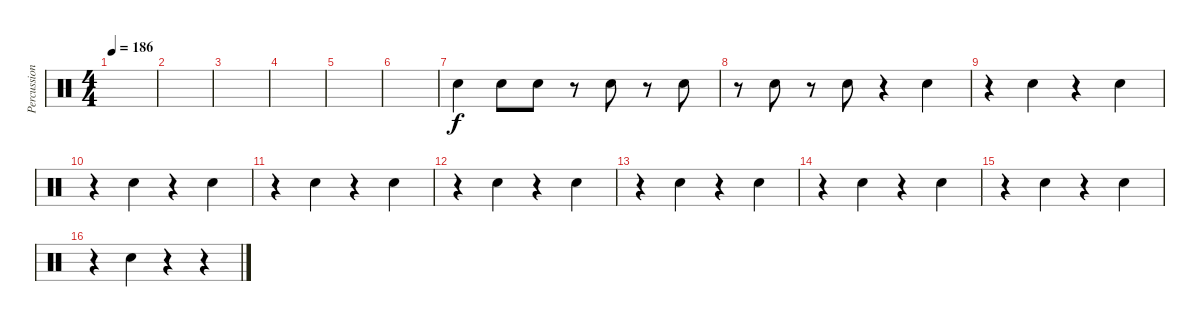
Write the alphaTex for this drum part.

\track ("Percussion" "Percussion") {instrument percussion}
\staff {score}
\articulation defaults
\ts (4 4)
\tempo 186
\clef neutral
\ks c
|
|
|
|
|
|
"Snare (hit) 2".4 "Snare (hit) 2".8 "Snare (hit) 2".8 r.8 "Snare (hit) 2".8 r.8 "Snare (hit) 2".8 |
r.8 "Snare (hit) 2".8 r.8 "Snare (hit) 2".8 r.4 "Snare (hit) 2".4 |
r.4 "Snare (hit) 2".4 r.4 "Snare (hit) 2".4 |
r.4 "Snare (hit) 2".4 r.4 "Snare (hit) 2".4 |
r.4 "Snare (hit) 2".4 r.4 "Snare (hit) 2".4 |
r.4 "Snare (hit) 2".4 r.4 "Snare (hit) 2".4 |
r.4 "Snare (hit) 2".4 r.4 "Snare (hit) 2".4 |
r.4 "Snare (hit) 2".4 r.4 "Snare (hit) 2".4 |
r.4 "Snare (hit) 2".4 r.4 "Snare (hit) 2".4 |
r.4 "Snare (hit) 2".4 r.4 r.4
